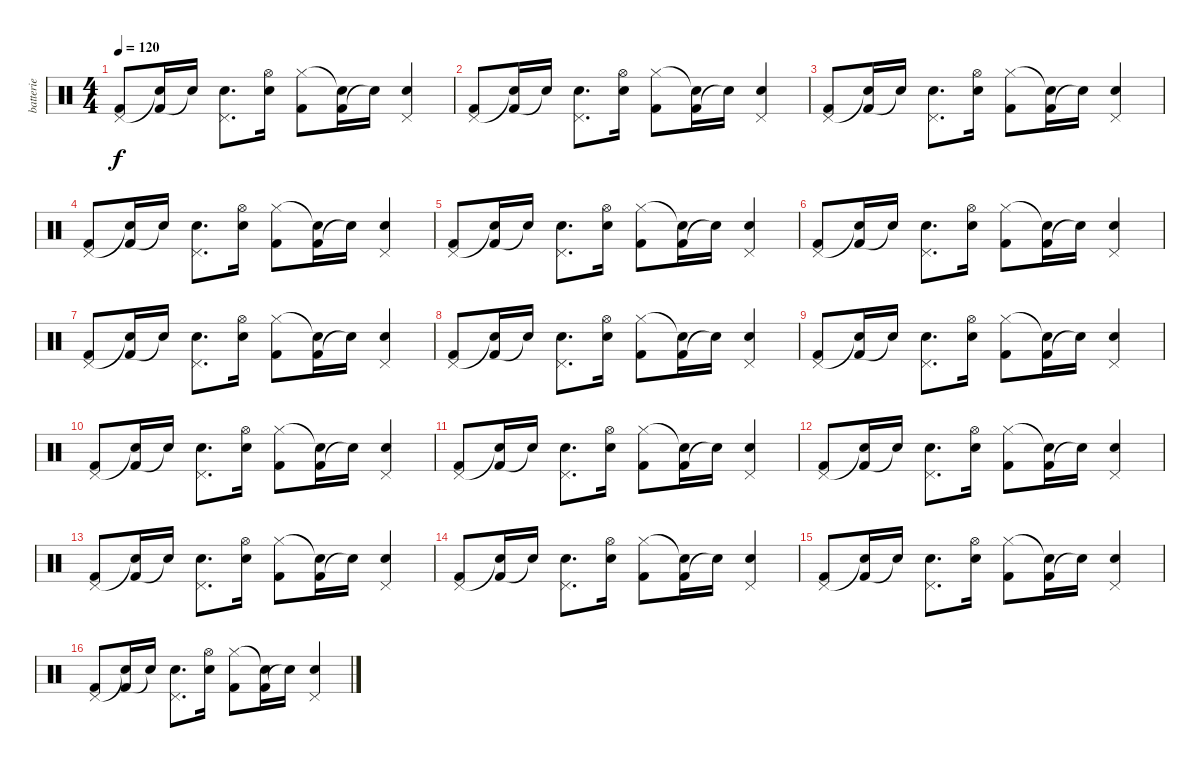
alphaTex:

\track ("batterie" "batterie") {instrument percussion}
\staff {score}
\articulation defaults
\ts (4 4)
\tempo 120
\clef neutral
\ks c
("Kick (hit) 2" "Pedal Hi-Hat (hit)").8{dy f} ("Kick (hit) 2" "Snare (hit)"{t}).16 "Snare (hit)"{t}.16 ("Snare (hit) 2" "Pedal Hi-Hat (hit)").8{d} ("Snare (hit) 2" "Hi-Hat (open)").16 ("Kick (hit) 2" "Hi-Hat (closed)").8 ("Kick (hit) 2" "Snare (hit)"{t}).16 "Snare (hit)"{t}.16 ("Snare (hit) 2" "Pedal Hi-Hat (hit)").4 |
("Kick (hit) 2" "Pedal Hi-Hat (hit)").8 ("Kick (hit) 2" "Snare (hit)"{t}).16 "Snare (hit)"{t}.16 ("Snare (hit) 2" "Pedal Hi-Hat (hit)").8{d} ("Snare (hit) 2" "Hi-Hat (open)").16 ("Kick (hit) 2" "Hi-Hat (closed)").8 ("Kick (hit) 2" "Snare (hit)"{t}).16 "Snare (hit)"{t}.16 ("Snare (hit) 2" "Pedal Hi-Hat (hit)").4 |
("Kick (hit) 2" "Pedal Hi-Hat (hit)").8 ("Kick (hit) 2" "Snare (hit)"{t}).16 "Snare (hit)"{t}.16 ("Snare (hit) 2" "Pedal Hi-Hat (hit)").8{d} ("Snare (hit) 2" "Hi-Hat (open)").16 ("Kick (hit) 2" "Hi-Hat (closed)").8 ("Kick (hit) 2" "Snare (hit)"{t}).16 "Snare (hit)"{t}.16 ("Snare (hit) 2" "Pedal Hi-Hat (hit)").4 |
("Kick (hit) 2" "Pedal Hi-Hat (hit)").8 ("Kick (hit) 2" "Snare (hit)"{t}).16 "Snare (hit)"{t}.16 ("Snare (hit) 2" "Pedal Hi-Hat (hit)").8{d} ("Snare (hit) 2" "Hi-Hat (open)").16 ("Kick (hit) 2" "Hi-Hat (closed)").8 ("Kick (hit) 2" "Snare (hit)"{t}).16 "Snare (hit)"{t}.16 ("Snare (hit) 2" "Pedal Hi-Hat (hit)").4 |
("Kick (hit) 2" "Pedal Hi-Hat (hit)").8 ("Kick (hit) 2" "Snare (hit)"{t}).16 "Snare (hit)"{t}.16 ("Snare (hit) 2" "Pedal Hi-Hat (hit)").8{d} ("Snare (hit) 2" "Hi-Hat (open)").16 ("Kick (hit) 2" "Hi-Hat (closed)").8 ("Kick (hit) 2" "Snare (hit)"{t}).16 "Snare (hit)"{t}.16 ("Snare (hit) 2" "Pedal Hi-Hat (hit)").4 |
("Kick (hit) 2" "Pedal Hi-Hat (hit)").8 ("Kick (hit) 2" "Snare (hit)"{t}).16 "Snare (hit)"{t}.16 ("Snare (hit) 2" "Pedal Hi-Hat (hit)").8{d} ("Snare (hit) 2" "Hi-Hat (open)").16 ("Kick (hit) 2" "Hi-Hat (closed)").8 ("Kick (hit) 2" "Snare (hit)"{t}).16 "Snare (hit)"{t}.16 ("Snare (hit) 2" "Pedal Hi-Hat (hit)").4 |
("Kick (hit) 2" "Pedal Hi-Hat (hit)").8 ("Kick (hit) 2" "Snare (hit)"{t}).16 "Snare (hit)"{t}.16 ("Snare (hit) 2" "Pedal Hi-Hat (hit)").8{d} ("Snare (hit) 2" "Hi-Hat (open)").16 ("Kick (hit) 2" "Hi-Hat (closed)").8 ("Kick (hit) 2" "Snare (hit)"{t}).16 "Snare (hit)"{t}.16 ("Snare (hit) 2" "Pedal Hi-Hat (hit)").4 |
("Kick (hit) 2" "Pedal Hi-Hat (hit)").8 ("Kick (hit) 2" "Snare (hit)"{t}).16 "Snare (hit)"{t}.16 ("Snare (hit) 2" "Pedal Hi-Hat (hit)").8{d} ("Snare (hit) 2" "Hi-Hat (open)").16 ("Kick (hit) 2" "Hi-Hat (closed)").8 ("Kick (hit) 2" "Snare (hit)"{t}).16 "Snare (hit)"{t}.16 ("Snare (hit) 2" "Pedal Hi-Hat (hit)").4 |
("Kick (hit) 2" "Pedal Hi-Hat (hit)").8 ("Kick (hit) 2" "Snare (hit)"{t}).16 "Snare (hit)"{t}.16 ("Snare (hit) 2" "Pedal Hi-Hat (hit)").8{d} ("Snare (hit) 2" "Hi-Hat (open)").16 ("Kick (hit) 2" "Hi-Hat (closed)").8 ("Kick (hit) 2" "Snare (hit)"{t}).16 "Snare (hit)"{t}.16 ("Snare (hit) 2" "Pedal Hi-Hat (hit)").4 |
("Kick (hit) 2" "Pedal Hi-Hat (hit)").8 ("Kick (hit) 2" "Snare (hit)"{t}).16 "Snare (hit)"{t}.16 ("Snare (hit) 2" "Pedal Hi-Hat (hit)").8{d} ("Snare (hit) 2" "Hi-Hat (open)").16 ("Kick (hit) 2" "Hi-Hat (closed)").8 ("Kick (hit) 2" "Snare (hit)"{t}).16 "Snare (hit)"{t}.16 ("Snare (hit) 2" "Pedal Hi-Hat (hit)").4 |
("Kick (hit) 2" "Pedal Hi-Hat (hit)").8 ("Kick (hit) 2" "Snare (hit)"{t}).16 "Snare (hit)"{t}.16 ("Snare (hit) 2" "Pedal Hi-Hat (hit)").8{d} ("Snare (hit) 2" "Hi-Hat (open)").16 ("Kick (hit) 2" "Hi-Hat (closed)").8 ("Kick (hit) 2" "Snare (hit)"{t}).16 "Snare (hit)"{t}.16 ("Snare (hit) 2" "Pedal Hi-Hat (hit)").4 |
("Kick (hit) 2" "Pedal Hi-Hat (hit)").8 ("Kick (hit) 2" "Snare (hit)"{t}).16 "Snare (hit)"{t}.16 ("Snare (hit) 2" "Pedal Hi-Hat (hit)").8{d} ("Snare (hit) 2" "Hi-Hat (open)").16 ("Kick (hit) 2" "Hi-Hat (closed)").8 ("Kick (hit) 2" "Snare (hit)"{t}).16 "Snare (hit)"{t}.16 ("Snare (hit) 2" "Pedal Hi-Hat (hit)").4 |
("Kick (hit) 2" "Pedal Hi-Hat (hit)").8 ("Kick (hit) 2" "Snare (hit)"{t}).16 "Snare (hit)"{t}.16 ("Snare (hit) 2" "Pedal Hi-Hat (hit)").8{d} ("Snare (hit) 2" "Hi-Hat (open)").16 ("Kick (hit) 2" "Hi-Hat (closed)").8 ("Kick (hit) 2" "Snare (hit)"{t}).16 "Snare (hit)"{t}.16 ("Snare (hit) 2" "Pedal Hi-Hat (hit)").4 |
("Kick (hit) 2" "Pedal Hi-Hat (hit)").8 ("Kick (hit) 2" "Snare (hit)"{t}).16 "Snare (hit)"{t}.16 ("Snare (hit) 2" "Pedal Hi-Hat (hit)").8{d} ("Snare (hit) 2" "Hi-Hat (open)").16 ("Kick (hit) 2" "Hi-Hat (closed)").8 ("Kick (hit) 2" "Snare (hit)"{t}).16 "Snare (hit)"{t}.16 ("Snare (hit) 2" "Pedal Hi-Hat (hit)").4 |
("Kick (hit) 2" "Pedal Hi-Hat (hit)").8 ("Kick (hit) 2" "Snare (hit)"{t}).16 "Snare (hit)"{t}.16 ("Snare (hit) 2" "Pedal Hi-Hat (hit)").8{d} ("Snare (hit) 2" "Hi-Hat (open)").16 ("Kick (hit) 2" "Hi-Hat (closed)").8 ("Kick (hit) 2" "Snare (hit)"{t}).16 "Snare (hit)"{t}.16 ("Snare (hit) 2" "Pedal Hi-Hat (hit)").4 |
("Kick (hit) 2" "Pedal Hi-Hat (hit)").8 ("Kick (hit) 2" "Snare (hit)"{t}).16 "Snare (hit)"{t}.16 ("Snare (hit) 2" "Pedal Hi-Hat (hit)").8{d} ("Snare (hit) 2" "Hi-Hat (open)").16 ("Kick (hit) 2" "Hi-Hat (closed)").8 ("Kick (hit) 2" "Snare (hit)"{t}).16 "Snare (hit)"{t}.16 ("Snare (hit) 2" "Pedal Hi-Hat (hit)").4
